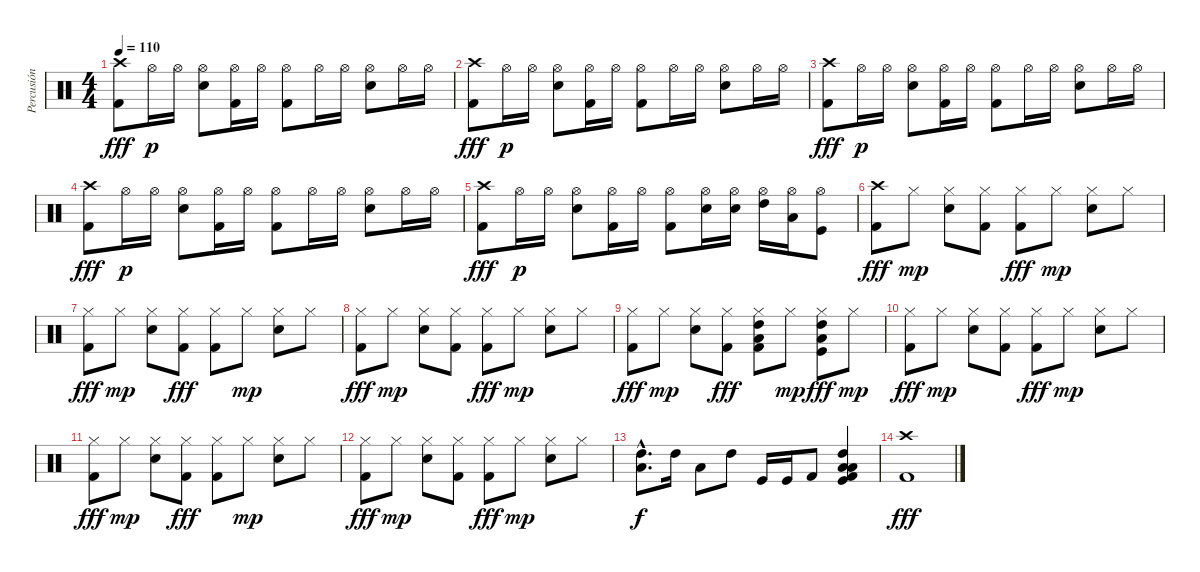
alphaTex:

\track ("Percusión" "Percusión") {instrument percussion}
\staff {score}
\articulation defaults
\ts (4 4)
\tempo 110
\clef neutral
\ks c
("Crash high (hit)" "Kick (hit) 2").8{dy fff} "Hi-Hat (open)".16{dy p} "Hi-Hat (open)".16 ("Hi-Hat (open)" "Snare (hit) 2").8 ("Hi-Hat (open)" "Kick (hit) 2").16 "Hi-Hat (open)".16 ("Hi-Hat (open)" "Kick (hit) 2").8 "Hi-Hat (open)".16 "Hi-Hat (open)".16 ("Hi-Hat (open)" "Snare (hit) 2").8 "Hi-Hat (open)".16 "Hi-Hat (open)".16 |
("Crash high (hit)" "Kick (hit) 2").8{dy fff} "Hi-Hat (open)".16{dy p} "Hi-Hat (open)".16 ("Hi-Hat (open)" "Snare (hit) 2").8 ("Hi-Hat (open)" "Kick (hit) 2").16 "Hi-Hat (open)".16 ("Hi-Hat (open)" "Kick (hit) 2").8 "Hi-Hat (open)".16 "Hi-Hat (open)".16 ("Hi-Hat (open)" "Snare (hit) 2").8 "Hi-Hat (open)".16 "Hi-Hat (open)".16 |
("Crash high (hit)" "Kick (hit) 2").8{dy fff} "Hi-Hat (open)".16{dy p} "Hi-Hat (open)".16 ("Hi-Hat (open)" "Snare (hit) 2").8 ("Hi-Hat (open)" "Kick (hit) 2").16 "Hi-Hat (open)".16 ("Hi-Hat (open)" "Kick (hit) 2").8 "Hi-Hat (open)".16 "Hi-Hat (open)".16 ("Hi-Hat (open)" "Snare (hit) 2").8 "Hi-Hat (open)".16 "Hi-Hat (open)".16 |
("Crash high (hit)" "Kick (hit) 2").8{dy fff} "Hi-Hat (open)".16{dy p} "Hi-Hat (open)".16 ("Hi-Hat (open)" "Snare (hit) 2").8 ("Hi-Hat (open)" "Kick (hit) 2").16 "Hi-Hat (open)".16 ("Hi-Hat (open)" "Kick (hit) 2").8 "Hi-Hat (open)".16 "Hi-Hat (open)".16 ("Hi-Hat (open)" "Snare (hit) 2").8 "Hi-Hat (open)".16 "Hi-Hat (open)".16 |
("Crash high (hit)" "Kick (hit) 2").8{dy fff} "Hi-Hat (open)".16{dy p} "Hi-Hat (open)".16 ("Hi-Hat (open)" "Snare (hit) 2").8 ("Hi-Hat (open)" "Kick (hit) 2").16 "Hi-Hat (open)".16 ("Hi-Hat (open)" "Kick (hit) 2").8 ("Hi-Hat (open)" "Snare (hit) 2").16 ("Hi-Hat (open)" "Snare (hit) 2").16 ("Hi-Hat (open)" "High Tom (hit)").16 ("Hi-Hat (open)" "Low Tom (hit)").16 ("Hi-Hat (open)" "Kick (hit)").8 |
("Crash high (hit)" "Kick (hit) 2").8{dy fff} "Hi-Hat (closed)".8{dy mp} ("Hi-Hat (closed)" "Snare (hit) 2").8 ("Hi-Hat (closed)" "Kick (hit) 2").8 ("Hi-Hat (closed)" "Kick (hit) 2").8{dy fff} "Hi-Hat (closed)".8{dy mp} ("Hi-Hat (closed)" "Snare (hit) 2").8 "Hi-Hat (closed)".8 |
("Hi-Hat (closed)" "Kick (hit) 2").8{dy fff} "Hi-Hat (closed)".8{dy mp} ("Hi-Hat (closed)" "Snare (hit) 2").8 ("Hi-Hat (closed)" "Kick (hit) 2").8{dy fff} ("Hi-Hat (closed)" "Kick (hit) 2").8 "Hi-Hat (closed)".8{dy mp} ("Hi-Hat (closed)" "Snare (hit) 2").8 "Hi-Hat (closed)".8 |
("Hi-Hat (closed)" "Kick (hit) 2").8{dy fff} "Hi-Hat (closed)".8{dy mp} ("Hi-Hat (closed)" "Snare (hit) 2").8 ("Hi-Hat (closed)" "Kick (hit) 2").8 ("Hi-Hat (closed)" "Kick (hit) 2").8{dy fff} "Hi-Hat (closed)".8{dy mp} ("Hi-Hat (closed)" "Snare (hit) 2").8 "Hi-Hat (closed)".8 |
("Hi-Hat (closed)" "Kick (hit) 2").8{dy fff} "Hi-Hat (closed)".8{dy mp} ("Hi-Hat (closed)" "Snare (hit) 2").8 ("Hi-Hat (closed)" "Kick (hit) 2").8{dy fff} ("Hi-Hat (closed)" "Kick (hit) 2" "High Tom (hit)" "Low Tom (hit)").8 "Hi-Hat (closed)".8{dy mp} ("Hi-Hat (closed)" "Kick (hit)" "Low Tom (hit)" "High Tom (hit)").8{dy fff} "Hi-Hat (closed)".8{dy mp} |
("Hi-Hat (closed)" "Kick (hit) 2").8{dy fff} "Hi-Hat (closed)".8{dy mp} ("Hi-Hat (closed)" "Snare (hit) 2").8 ("Hi-Hat (closed)" "Kick (hit) 2").8 ("Hi-Hat (closed)" "Kick (hit) 2").8{dy fff} "Hi-Hat (closed)".8{dy mp} ("Hi-Hat (closed)" "Snare (hit) 2").8 "Hi-Hat (closed)".8 |
("Hi-Hat (closed)" "Kick (hit) 2").8{dy fff} "Hi-Hat (closed)".8{dy mp} ("Hi-Hat (closed)" "Snare (hit) 2").8 ("Hi-Hat (closed)" "Kick (hit) 2").8{dy fff} ("Hi-Hat (closed)" "Kick (hit) 2").8 "Hi-Hat (closed)".8{dy mp} ("Hi-Hat (closed)" "Snare (hit) 2").8 "Hi-Hat (closed)".8 |
("Hi-Hat (closed)" "Kick (hit) 2").8{dy fff} "Hi-Hat (closed)".8{dy mp} ("Hi-Hat (closed)" "Snare (hit) 2").8 ("Hi-Hat (closed)" "Kick (hit) 2").8 ("Hi-Hat (closed)" "Kick (hit) 2").8{dy fff} "Hi-Hat (closed)".8{dy mp} ("Hi-Hat (closed)" "Snare (hit) 2").8 "Hi-Hat (closed)".8 |
("Low Tom (hit)"{hac} "High Tom (hit)"{hac}).8{d bd 120 dy f balance 10} "High Tom (hit)".16 "Low Tom (hit)".8 "High Tom (hit)".8 "Kick (hit)".16{balance 6} "Kick (hit)".16 "Kick (hit) 2".8 ("High Tom (hit)" "Kick (hit)" "Low Tom (hit)" "Kick (hit) 2" "Low Tom (hit)").4{bd 30} |
("Crash high (hit)" "Kick (hit) 2").1{dy fff}
